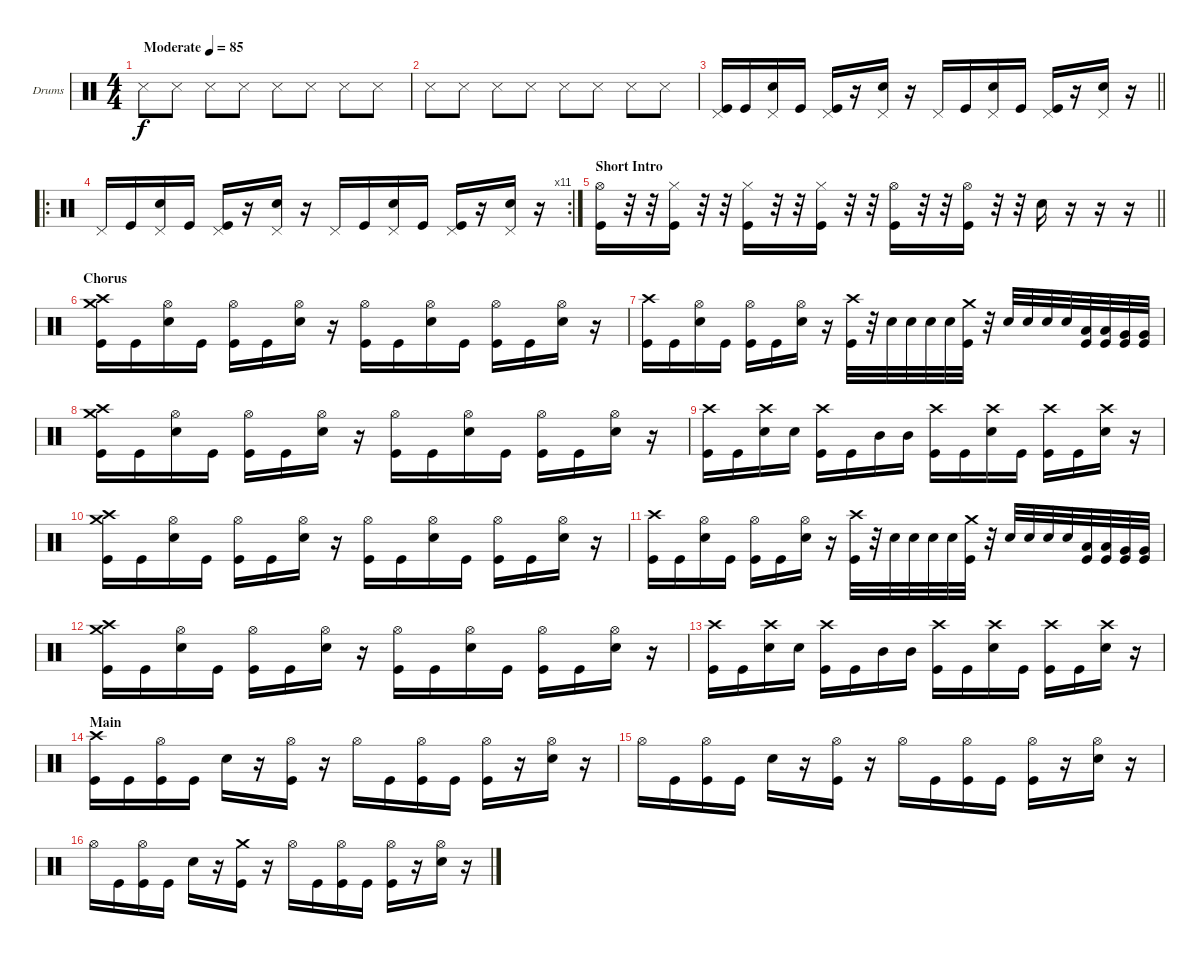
\bracketExtendMode groupsimilarinstruments
\firstSystemTrackNameOrientation horizontal
\otherSystemsTrackNameOrientation horizontal
\track ("Drumkit" "Drums") {instrument percussion}
\staff {score}
\articulation defaults
\ts (4 4)
\beaming (8 2 2 2 2)
\tempo (85 "Moderate")
\clef neutral
\ks c "Snare (side stick) 3".8{dy f} "Snare (side stick) 3".8 "Snare (side stick) 3".8 "Snare (side stick) 3".8 "Snare (side stick) 3".8 "Snare (side stick) 3".8 "Snare (side stick) 3".8 "Snare (side stick) 3".8
|
"Snare (side stick) 3".8 "Snare (side stick) 3".8 "Snare (side stick) 3".8 "Snare (side stick) 3".8 "Snare (side stick) 3".8 "Snare (side stick) 3".8 "Snare (side stick) 3".8 "Snare (side stick) 3".8 |
\barLineRight lightlight
("Pedal Hi-Hat (hit)" "Kick (hit)").16 "Kick (hit)".16 ("Pedal Hi-Hat (hit)" "Snare (hit) 2").16 "Kick (hit)".16 ("Pedal Hi-Hat (hit)" "Kick (hit)").16 r.16 ("Pedal Hi-Hat (hit)" "Snare (hit) 2").16 r.16 "Pedal Hi-Hat (hit)".16 "Kick (hit)".16 ("Pedal Hi-Hat (hit)" "Snare (hit) 2").16 "Kick (hit)".16 ("Pedal Hi-Hat (hit)" "Kick (hit)").16 r.16 ("Pedal Hi-Hat (hit)" "Snare (hit) 2").16 r.16 |
\ro
\rc 11 "Pedal Hi-Hat (hit)".16 "Kick (hit)".16
("Pedal Hi-Hat (hit)" "Snare (hit) 2").16 "Kick (hit)".16 ("Pedal Hi-Hat (hit)" "Kick (hit)").16 r.16 ("Pedal Hi-Hat (hit)" "Snare (hit) 2").16 r.16 "Pedal Hi-Hat (hit)".16 "Kick (hit)".16 ("Pedal Hi-Hat (hit)" "Snare (hit) 2").16 "Kick (hit)".16 ("Pedal Hi-Hat (hit)" "Kick (hit)").16 r.16 ("Pedal Hi-Hat (hit)" "Snare (hit) 2").16 r.16 |
\section ("" "Short Intro")
\barLineRight lightlight
("Hi-Hat (open)" "Kick (hit)").16 r.32 r.32 ("Hi-Hat (closed)" "Kick (hit)").16 r.32 r.32 ("Hi-Hat (closed)" "Kick (hit)").16 r.32 r.32 ("Hi-Hat (closed)" "Kick (hit)").16 r.32 r.32 ("Hi-Hat (open)" "Kick (hit)").16 r.32 r.32 ("Hi-Hat (open)" "Kick (hit)").16 r.32 r.32 "Snare (hit) 2".16 r.16 r.16 r.16 |
\section ("" "Chorus")
("Kick (hit)" "Crash medium (hit)" "Crash high (hit)").16 "Kick (hit)".16 ("Snare (hit) 2" "Hi-Hat (open)").16 "Kick (hit)".16 ("Kick (hit)" "Hi-Hat (open)").16 "Kick (hit)".16 ("Snare (hit) 2" "Hi-Hat (open)").16 r.16 ("Kick (hit)" "Hi-Hat (open)").16 "Kick (hit)".16 ("Snare (hit) 2" "Hi-Hat (open)").16 "Kick (hit)".16 ("Kick (hit)" "Hi-Hat (open)").16 "Kick (hit)".16 ("Snare (hit) 2" "Hi-Hat (open)").16 r.16 |
("Kick (hit)" "Crash high (hit)").16 "Kick (hit)".16 ("Snare (hit) 2" "Hi-Hat (open)").16 "Kick (hit)".16 ("Kick (hit)" "Hi-Hat (open)").16 "Kick (hit)".16 ("Snare (hit) 2" "Hi-Hat (open)").16 r.16 ("Kick (hit)" "Crash high (hit)").32 r.32 "Snare (hit) 2".32 "Snare (hit) 2".32 "Snare (hit) 2".32 "Snare (hit) 2".32 ("Kick (hit)" "Crash medium (hit)").32 r.32 "Snare (hit) 2".32 "Snare (hit) 2".32 "Snare (hit) 2".32 "Snare (hit) 2".32 ("Low Tom (hit)" "Kick (hit)").32 ("Low Tom (hit)" "Kick (hit)").32 ("Very Low Tom (hit)" "Kick (hit)").32 ("Very Low Tom (hit)" "Kick (hit)").32 |
("Kick (hit)" "Crash medium (hit)" "Crash high (hit)").16 "Kick (hit)".16 ("Snare (hit) 2" "Hi-Hat (open)").16 "Kick (hit)".16 ("Kick (hit)" "Hi-Hat (open)").16 "Kick (hit)".16 ("Snare (hit) 2" "Hi-Hat (open)").16 r.16 ("Kick (hit)" "Hi-Hat (open)").16 "Kick (hit)".16 ("Snare (hit) 2" "Hi-Hat (open)").16 "Kick (hit)".16 ("Kick (hit)" "Hi-Hat (open)").16 "Kick (hit)".16 ("Snare (hit) 2" "Hi-Hat (open)").16 r.16 |
("Kick (hit)" "Crash high (hit)").16 "Kick (hit)".16 ("Snare (hit) 2" "Crash high (hit)").16 "Snare (hit) 2".16 ("Kick (hit)" "Crash high (hit)").16 "Kick (hit)".16 "Mid Tom (hit)".16 "Mid Tom (hit)".16 ("Kick (hit)" "Crash high (hit)").16 "Kick (hit)".16 ("Snare (hit) 2" "Crash high (hit)").16 "Kick (hit)".16 ("Kick (hit)" "Crash high (hit)").16 "Kick (hit)".16 ("Snare (hit) 2" "Crash high (hit)").16 r.16 |
("Kick (hit)" "Crash medium (hit)" "Crash high (hit)").16 "Kick (hit)".16 ("Snare (hit) 2" "Hi-Hat (open)").16 "Kick (hit)".16 ("Kick (hit)" "Hi-Hat (open)").16 "Kick (hit)".16 ("Snare (hit) 2" "Hi-Hat (open)").16 r.16 ("Kick (hit)" "Hi-Hat (open)").16 "Kick (hit)".16 ("Snare (hit) 2" "Hi-Hat (open)").16 "Kick (hit)".16 ("Kick (hit)" "Hi-Hat (open)").16 "Kick (hit)".16 ("Snare (hit) 2" "Hi-Hat (open)").16 r.16 |
("Kick (hit)" "Crash high (hit)").16 "Kick (hit)".16 ("Snare (hit) 2" "Hi-Hat (open)").16 "Kick (hit)".16 ("Kick (hit)" "Hi-Hat (open)").16 "Kick (hit)".16 ("Snare (hit) 2" "Hi-Hat (open)").16 r.16 ("Kick (hit)" "Crash high (hit)").32 r.32 "Snare (hit) 2".32 "Snare (hit) 2".32 "Snare (hit) 2".32 "Snare (hit) 2".32 ("Kick (hit)" "Crash medium (hit)").32 r.32 "Snare (hit) 2".32 "Snare (hit) 2".32 "Snare (hit) 2".32 "Snare (hit) 2".32 ("Low Tom (hit)" "Kick (hit)").32 ("Low Tom (hit)" "Kick (hit)").32 ("Very Low Tom (hit)" "Kick (hit)").32 ("Very Low Tom (hit)" "Kick (hit)").32 |
("Kick (hit)" "Crash medium (hit)" "Crash high (hit)").16 "Kick (hit)".16 ("Snare (hit) 2" "Hi-Hat (open)").16 "Kick (hit)".16 ("Kick (hit)" "Hi-Hat (open)").16 "Kick (hit)".16 ("Snare (hit) 2" "Hi-Hat (open)").16 r.16 ("Kick (hit)" "Hi-Hat (open)").16 "Kick (hit)".16 ("Snare (hit) 2" "Hi-Hat (open)").16 "Kick (hit)".16 ("Kick (hit)" "Hi-Hat (open)").16 "Kick (hit)".16 ("Snare (hit) 2" "Hi-Hat (open)").16 r.16 |
("Kick (hit)" "Crash high (hit)").16 "Kick (hit)".16 ("Snare (hit) 2" "Crash high (hit)").16 "Snare (hit) 2".16 ("Kick (hit)" "Crash high (hit)").16 "Kick (hit)".16 "Mid Tom (hit)".16 "Mid Tom (hit)".16 ("Kick (hit)" "Crash high (hit)").16 "Kick (hit)".16 ("Snare (hit) 2" "Crash high (hit)").16 "Kick (hit)".16 ("Kick (hit)" "Crash high (hit)").16 "Kick (hit)".16 ("Snare (hit) 2" "Crash high (hit)").16 r.16 |
\section ("" "Main")
("Kick (hit)" "Crash high (hit)").16 "Kick (hit)".16 ("Kick (hit)" "Hi-Hat (open)").16 "Kick (hit)".16 "Snare (hit) 2".16 r.16 ("Kick (hit)" "Hi-Hat (open)").16 r.16 "Hi-Hat (open)".16 "Kick (hit)".16 ("Kick (hit)" "Hi-Hat (open)").16 "Kick (hit)".16 ("Kick (hit)" "Hi-Hat (open)").16 r.16 ("Snare (hit) 2" "Hi-Hat (open)").16 r.16 |
"Hi-Hat (open)".16 "Kick (hit)".16 ("Kick (hit)" "Hi-Hat (open)").16 "Kick (hit)".16 "Snare (hit) 2".16 r.16 ("Kick (hit)" "Hi-Hat (open)").16 r.16 "Hi-Hat (open)".16 "Kick (hit)".16 ("Kick (hit)" "Hi-Hat (open)").16 "Kick (hit)".16 ("Kick (hit)" "Hi-Hat (open)").16 r.16 ("Snare (hit) 2" "Hi-Hat (open)").16 r.16 |
"Hi-Hat (open)".16 "Kick (hit)".16 ("Kick (hit)" "Hi-Hat (open)").16 "Kick (hit)".16 "Snare (hit) 2".16 r.16 ("Kick (hit)" "Crash medium (hit)").16 r.16 "Hi-Hat (open)".16 "Kick (hit)".16 ("Kick (hit)" "Hi-Hat (open)").16 "Kick (hit)".16 ("Kick (hit)" "Hi-Hat (open)").16 r.16 ("Snare (hit) 2" "Hi-Hat (open)").16 r.16
